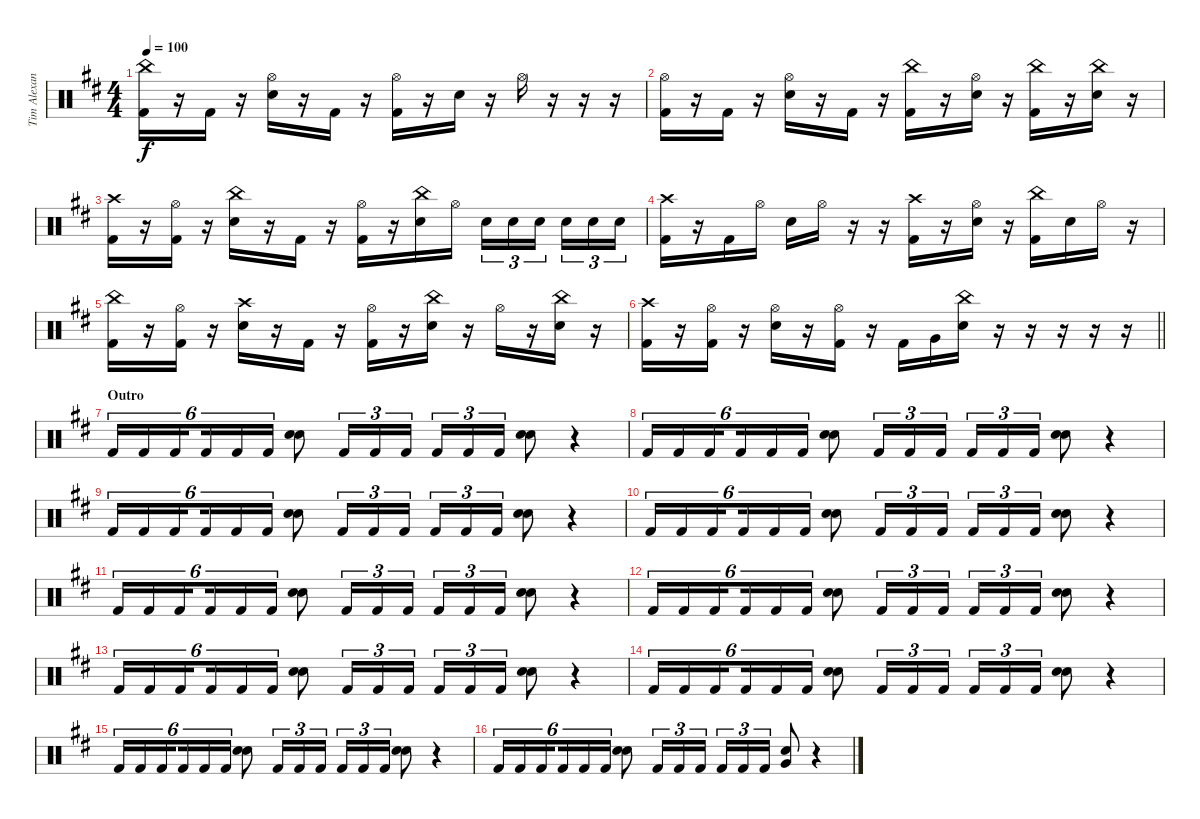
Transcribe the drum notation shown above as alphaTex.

\track ("Tim Alexander" "Tim Alexan") {instrument percussion}
\staff {score}
\articulation defaults
\ts (4 4)
\tempo 100
\clef neutral
\ks d
("China (hit)" "Kick (hit) 2").16{dy f} r.16 "Kick (hit) 2".16 r.16 ("Hi-Hat (open)" "Snare (hit) 2").16 r.16 "Kick (hit) 2".16 r.16 ("Hi-Hat (open)" "Kick (hit) 2").16 r.16 "Snare (hit) 2".16 r.16 "Hi-Hat (open)".16 r.16 r.16 r.16 |
("Hi-Hat (open)" "Kick (hit) 2").16 r.16 "Kick (hit) 2".16 r.16 ("Hi-Hat (open)" "Snare (hit) 2").16 r.16 "Kick (hit) 2".16 r.16 ("China (hit)" "Kick (hit) 2").16 r.16 ("Hi-Hat (open)" "Snare (hit) 2").16 r.16 ("China (hit)" "Kick (hit) 2").16 r.16 ("China (hit)" "Snare (hit) 2").16 r.16 |
("Crash high (hit)" "Kick (hit) 2").16 r.16 ("Hi-Hat (open)" "Kick (hit) 2").16 r.16 ("China (hit)" "Snare (hit) 2").16 r.16 "Kick (hit) 2".16 r.16 ("Hi-Hat (open)" "Kick (hit) 2").16 r.16 ("China (hit)" "Snare (hit) 2").16 "Hi-Hat (open)".16 "Snare (hit) 2".16{tu (3 2)} "Snare (hit) 2".16{tu (3 2)} "Snare (hit) 2".16{tu (3 2) beam splitsecondary} "Snare (hit) 2".16{tu (3 2)} "Snare (hit) 2".16{tu (3 2)} "Snare (hit) 2".16{tu (3 2)} |
("Crash high (hit)" "Kick (hit) 2").16 r.16 "Kick (hit) 2".16 "Hi-Hat (open)".16 "Snare (hit) 2".16 "Hi-Hat (open)".16 r.16 r.16 ("Crash high (hit)" "Kick (hit) 2").16 r.16 ("Hi-Hat (open)" "Snare (hit) 2").16 r.16 ("China (hit)" "Kick (hit) 2").16 "Snare (hit) 2".16 "Hi-Hat (open)".16 r.16 |
("China (hit)" "Kick (hit) 2").16 r.16 ("Hi-Hat (open)" "Kick (hit) 2").16 r.16 ("Crash high (hit)" "Snare (hit) 2").16 r.16 "Kick (hit) 2".16 r.16 ("Hi-Hat (open)" "Kick (hit) 2").16 r.16 ("China (hit)" "Snare (hit) 2").16 r.16 "Hi-Hat (open)".16 r.16 ("China (hit)" "Snare (hit) 2").16 r.16 |
\barLineRight lightlight
("Crash high (hit)" "Kick (hit) 2").16 r.16 ("Hi-Hat (open)" "Kick (hit) 2").16 r.16 ("Hi-Hat (open)" "Snare (hit) 2").16 r.16 ("Hi-Hat (open)" "Kick (hit) 2").16 r.16 "Kick (hit) 2".16 "Very Low Tom (hit)".16 ("China (hit)" "Snare (hit) 2").16 r.16 r.16 r.16 r.16 r.16 |
\section ("" "Outro")
"Kick (hit) 2".16{tu (6 4)} "Kick (hit) 2".16{tu (6 4)} "Kick (hit) 2".16{tu (6 4) beam splitsecondary} "Kick (hit) 2".16{tu (6 4)} "Kick (hit) 2".16{tu (6 4)} "Kick (hit) 2".16{tu (6 4)} ("Snare (hit) 2" "Snare (hit) 2").8 "Kick (hit) 2".16{tu (3 2)} "Kick (hit) 2".16{tu (3 2)} "Kick (hit) 2".16{tu (3 2)} "Kick (hit) 2".16{tu (3 2)} "Kick (hit) 2".16{tu (3 2)} "Kick (hit) 2".16{tu (3 2)} ("Snare (hit) 2" "Snare (hit) 2").8 r.4 |
"Kick (hit) 2".16{tu (6 4)} "Kick (hit) 2".16{tu (6 4)} "Kick (hit) 2".16{tu (6 4) beam splitsecondary} "Kick (hit) 2".16{tu (6 4)} "Kick (hit) 2".16{tu (6 4)} "Kick (hit) 2".16{tu (6 4)} ("Snare (hit) 2" "Snare (hit) 2").8 "Kick (hit) 2".16{tu (3 2)} "Kick (hit) 2".16{tu (3 2)} "Kick (hit) 2".16{tu (3 2)} "Kick (hit) 2".16{tu (3 2)} "Kick (hit) 2".16{tu (3 2)} "Kick (hit) 2".16{tu (3 2)} ("Snare (hit) 2" "Snare (hit) 2").8 r.4 |
"Kick (hit) 2".16{tu (6 4)} "Kick (hit) 2".16{tu (6 4)} "Kick (hit) 2".16{tu (6 4) beam splitsecondary} "Kick (hit) 2".16{tu (6 4)} "Kick (hit) 2".16{tu (6 4)} "Kick (hit) 2".16{tu (6 4)} ("Snare (hit) 2" "Snare (hit) 2").8 "Kick (hit) 2".16{tu (3 2)} "Kick (hit) 2".16{tu (3 2)} "Kick (hit) 2".16{tu (3 2)} "Kick (hit) 2".16{tu (3 2)} "Kick (hit) 2".16{tu (3 2)} "Kick (hit) 2".16{tu (3 2)} ("Snare (hit) 2" "Snare (hit) 2").8 r.4 |
"Kick (hit) 2".16{tu (6 4)} "Kick (hit) 2".16{tu (6 4)} "Kick (hit) 2".16{tu (6 4) beam splitsecondary} "Kick (hit) 2".16{tu (6 4)} "Kick (hit) 2".16{tu (6 4)} "Kick (hit) 2".16{tu (6 4)} ("Snare (hit) 2" "Snare (hit) 2").8 "Kick (hit) 2".16{tu (3 2)} "Kick (hit) 2".16{tu (3 2)} "Kick (hit) 2".16{tu (3 2)} "Kick (hit) 2".16{tu (3 2)} "Kick (hit) 2".16{tu (3 2)} "Kick (hit) 2".16{tu (3 2)} ("Snare (hit) 2" "Snare (hit) 2").8 r.4 |
"Kick (hit) 2".16{tu (6 4)} "Kick (hit) 2".16{tu (6 4)} "Kick (hit) 2".16{tu (6 4) beam splitsecondary} "Kick (hit) 2".16{tu (6 4)} "Kick (hit) 2".16{tu (6 4)} "Kick (hit) 2".16{tu (6 4)} ("Snare (hit) 2" "Snare (hit) 2").8 "Kick (hit) 2".16{tu (3 2)} "Kick (hit) 2".16{tu (3 2)} "Kick (hit) 2".16{tu (3 2)} "Kick (hit) 2".16{tu (3 2)} "Kick (hit) 2".16{tu (3 2)} "Kick (hit) 2".16{tu (3 2)} ("Snare (hit) 2" "Snare (hit) 2").8 r.4 |
"Kick (hit) 2".16{tu (6 4)} "Kick (hit) 2".16{tu (6 4)} "Kick (hit) 2".16{tu (6 4) beam splitsecondary} "Kick (hit) 2".16{tu (6 4)} "Kick (hit) 2".16{tu (6 4)} "Kick (hit) 2".16{tu (6 4)} ("Snare (hit) 2" "Snare (hit) 2").8 "Kick (hit) 2".16{tu (3 2)} "Kick (hit) 2".16{tu (3 2)} "Kick (hit) 2".16{tu (3 2)} "Kick (hit) 2".16{tu (3 2)} "Kick (hit) 2".16{tu (3 2)} "Kick (hit) 2".16{tu (3 2)} ("Snare (hit) 2" "Snare (hit) 2").8 r.4 |
"Kick (hit) 2".16{tu (6 4)} "Kick (hit) 2".16{tu (6 4)} "Kick (hit) 2".16{tu (6 4) beam splitsecondary} "Kick (hit) 2".16{tu (6 4)} "Kick (hit) 2".16{tu (6 4)} "Kick (hit) 2".16{tu (6 4)} ("Snare (hit) 2" "Snare (hit) 2").8 "Kick (hit) 2".16{tu (3 2)} "Kick (hit) 2".16{tu (3 2)} "Kick (hit) 2".16{tu (3 2)} "Kick (hit) 2".16{tu (3 2)} "Kick (hit) 2".16{tu (3 2)} "Kick (hit) 2".16{tu (3 2)} ("Snare (hit) 2" "Snare (hit) 2").8 r.4 |
"Kick (hit) 2".16{tu (6 4)} "Kick (hit) 2".16{tu (6 4)} "Kick (hit) 2".16{tu (6 4) beam splitsecondary} "Kick (hit) 2".16{tu (6 4)} "Kick (hit) 2".16{tu (6 4)} "Kick (hit) 2".16{tu (6 4)} ("Snare (hit) 2" "Snare (hit) 2").8 "Kick (hit) 2".16{tu (3 2)} "Kick (hit) 2".16{tu (3 2)} "Kick (hit) 2".16{tu (3 2)} "Kick (hit) 2".16{tu (3 2)} "Kick (hit) 2".16{tu (3 2)} "Kick (hit) 2".16{tu (3 2)} ("Snare (hit) 2" "Snare (hit) 2").8 r.4 |
"Kick (hit) 2".16{tu (6 4)} "Kick (hit) 2".16{tu (6 4)} "Kick (hit) 2".16{tu (6 4) beam splitsecondary} "Kick (hit) 2".16{tu (6 4)} "Kick (hit) 2".16{tu (6 4)} "Kick (hit) 2".16{tu (6 4)} ("Snare (hit) 2" "Snare (hit) 2").8 "Kick (hit) 2".16{tu (3 2)} "Kick (hit) 2".16{tu (3 2)} "Kick (hit) 2".16{tu (3 2)} "Kick (hit) 2".16{tu (3 2)} "Kick (hit) 2".16{tu (3 2)} "Kick (hit) 2".16{tu (3 2)} ("Snare (hit) 2" "Snare (hit) 2").8 r.4 |
"Kick (hit) 2".16{tu (6 4)} "Kick (hit) 2".16{tu (6 4)} "Kick (hit) 2".16{tu (6 4) beam splitsecondary} "Kick (hit) 2".16{tu (6 4)} "Kick (hit) 2".16{tu (6 4)} "Kick (hit) 2".16{tu (6 4)} ("Snare (hit) 2" "Snare (hit) 2").8 "Kick (hit) 2".16{tu (3 2)} "Kick (hit) 2".16{tu (3 2)} "Kick (hit) 2".16{tu (3 2)} "Kick (hit) 2".16{tu (3 2)} "Kick (hit) 2".16{tu (3 2)} "Kick (hit) 2".16{tu (3 2)} ("Very Low Tom (hit)" "Snare (hit) 2").8 r.4
